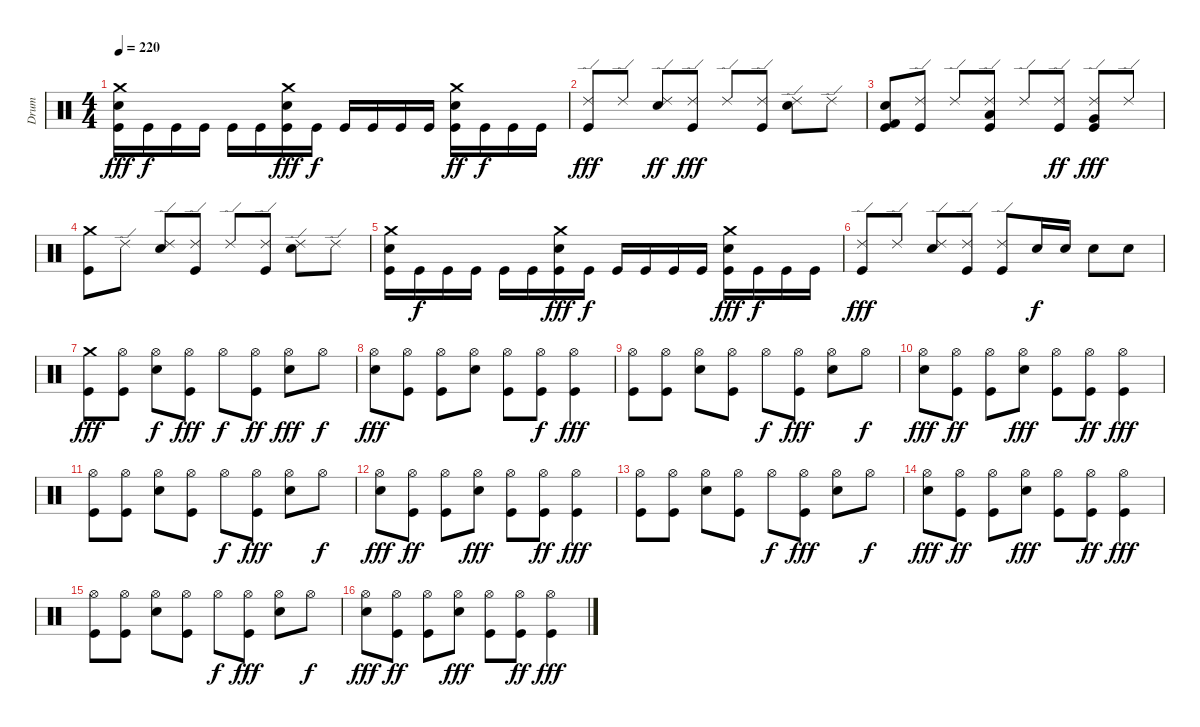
\track ("Drum" "Drum") {instrument percussion}
\staff {score}
\articulation defaults
\ts (4 4)
\tempo 220
\clef neutral
\ks c
("Crash medium (hit)" "Snare (hit) 2" "Kick (hit)").16{dy fff} "Kick (hit)".16{dy f} "Kick (hit)".16 "Kick (hit)".16 "Kick (hit)".16 "Kick (hit)".16 ("Crash medium (hit)" "Snare (hit) 2" "Kick (hit)").16{dy fff} "Kick (hit)".16{dy f} "Kick (hit)".16 "Kick (hit)".16 "Kick (hit)".16 "Kick (hit)".16 ("Crash medium (hit)" "Snare (hit) 2" "Kick (hit)").16{dy ff} "Kick (hit)".16{dy f} "Kick (hit)".16 "Kick (hit)".16 |
("Ride (edge) 2" "Kick (hit)").8{dy fff} "Ride (edge) 2".8 ("Ride (edge) 2" "Snare (hit) 2").8{dy ff} ("Ride (edge) 2" "Kick (hit)").8{dy fff} "Ride (edge) 2".8 ("Ride (edge) 2" "Kick (hit)").8 ("Ride (edge) 2" "Snare (hit) 2").8 "Ride (edge) 2".8 |
("Kick (hit) 2" "Snare (hit) 2" "Kick (hit)").8 ("Ride (edge) 2" "Kick (hit)").8 "Ride (edge) 2".8 ("Ride (edge) 2" "Low Floor Tom (hit)" "Kick (hit)").8 "Ride (edge) 2".8 ("Ride (edge) 2" "Kick (hit)").8{dy ff} ("Ride (edge) 2" "Very Low Tom (hit)" "Kick (hit)").8{dy fff} "Ride (edge) 2".8 |
("Crash medium (hit)" "Kick (hit)").8 "Ride (edge) 2".8 ("Ride (edge) 2" "Snare (hit) 2").8 ("Ride (edge) 2" "Kick (hit)").8 "Ride (edge) 2".8 ("Ride (edge) 2" "Kick (hit)").8 ("Ride (edge) 2" "Snare (hit) 2").8 "Ride (edge) 2".8 |
("Crash medium (hit)" "Snare (hit) 2" "Kick (hit)").16 "Kick (hit)".16{dy f} "Kick (hit)".16 "Kick (hit)".16 "Kick (hit)".16 "Kick (hit)".16 ("Crash medium (hit)" "Snare (hit) 2" "Kick (hit)").16{dy fff} "Kick (hit)".16{dy f} "Kick (hit)".16 "Kick (hit)".16 "Kick (hit)".16 "Kick (hit)".16 ("Crash medium (hit)" "Snare (hit) 2" "Kick (hit)").16{dy fff} "Kick (hit)".16{dy f} "Kick (hit)".16 "Kick (hit)".16 |
("Ride (edge) 2" "Kick (hit)").8{dy fff} "Ride (edge) 2".8 ("Ride (edge) 2" "Snare (hit) 2").8 ("Ride (edge) 2" "Kick (hit)").8 ("Ride (edge) 2" "Kick (hit)").8 "Snare (hit) 2".16{dy f} "Snare (hit) 2".16 "Snare (hit) 2".8 "Snare (hit) 2".8 |
("Crash medium (hit)" "Kick (hit)").8{dy fff} ("Hi-Hat (open)" "Kick (hit)").8 ("Hi-Hat (open)" "Snare (hit) 2").8{dy f} ("Hi-Hat (open)" "Kick (hit)").8{dy fff} "Hi-Hat (open)".8{dy f} ("Hi-Hat (open)" "Kick (hit)").8{dy ff} ("Hi-Hat (open)" "Snare (hit) 2").8{dy fff} "Hi-Hat (open)".8{dy f} |
("Hi-Hat (open)" "Snare (hit) 2").8{dy fff} ("Hi-Hat (open)" "Kick (hit)").8 ("Hi-Hat (open)" "Kick (hit)").8 ("Hi-Hat (open)" "Snare (hit) 2").8 ("Hi-Hat (open)" "Kick (hit)").8 ("Hi-Hat (open)" "Kick (hit)").8{dy f} ("Hi-Hat (open)" "Kick (hit)").4{dy fff} |
("Hi-Hat (open)" "Kick (hit)").8 ("Hi-Hat (open)" "Kick (hit)").8 ("Hi-Hat (open)" "Snare (hit) 2").8 ("Hi-Hat (open)" "Kick (hit)").8 "Hi-Hat (open)".8{dy f} ("Hi-Hat (open)" "Kick (hit)").8{dy fff} ("Hi-Hat (open)" "Snare (hit) 2").8 "Hi-Hat (open)".8{dy f} |
("Hi-Hat (open)" "Snare (hit) 2").8{dy fff} ("Hi-Hat (open)" "Kick (hit)").8{dy ff} ("Hi-Hat (open)" "Kick (hit)").8 ("Hi-Hat (open)" "Snare (hit) 2").8{dy fff} ("Hi-Hat (open)" "Kick (hit)").8 ("Hi-Hat (open)" "Kick (hit)").8{dy ff} ("Hi-Hat (open)" "Kick (hit)").4{dy fff} |
("Hi-Hat (open)" "Kick (hit)").8 ("Hi-Hat (open)" "Kick (hit)").8 ("Hi-Hat (open)" "Snare (hit) 2").8 ("Hi-Hat (open)" "Kick (hit)").8 "Hi-Hat (open)".8{dy f} ("Hi-Hat (open)" "Kick (hit)").8{dy fff} ("Hi-Hat (open)" "Snare (hit) 2").8 "Hi-Hat (open)".8{dy f} |
("Hi-Hat (open)" "Snare (hit) 2").8{dy fff} ("Hi-Hat (open)" "Kick (hit)").8{dy ff} ("Hi-Hat (open)" "Kick (hit)").8 ("Hi-Hat (open)" "Snare (hit) 2").8{dy fff} ("Hi-Hat (open)" "Kick (hit)").8 ("Hi-Hat (open)" "Kick (hit)").8{dy ff} ("Hi-Hat (open)" "Kick (hit)").4{dy fff} |
("Hi-Hat (open)" "Kick (hit)").8 ("Hi-Hat (open)" "Kick (hit)").8 ("Hi-Hat (open)" "Snare (hit) 2").8 ("Hi-Hat (open)" "Kick (hit)").8 "Hi-Hat (open)".8{dy f} ("Hi-Hat (open)" "Kick (hit)").8{dy fff} ("Hi-Hat (open)" "Snare (hit) 2").8 "Hi-Hat (open)".8{dy f} |
("Hi-Hat (open)" "Snare (hit) 2").8{dy fff} ("Hi-Hat (open)" "Kick (hit)").8{dy ff} ("Hi-Hat (open)" "Kick (hit)").8 ("Hi-Hat (open)" "Snare (hit) 2").8{dy fff} ("Hi-Hat (open)" "Kick (hit)").8 ("Hi-Hat (open)" "Kick (hit)").8{dy ff} ("Hi-Hat (open)" "Kick (hit)").4{dy fff} |
("Hi-Hat (open)" "Kick (hit)").8 ("Hi-Hat (open)" "Kick (hit)").8 ("Hi-Hat (open)" "Snare (hit) 2").8 ("Hi-Hat (open)" "Kick (hit)").8 "Hi-Hat (open)".8{dy f} ("Hi-Hat (open)" "Kick (hit)").8{dy fff} ("Hi-Hat (open)" "Snare (hit) 2").8 "Hi-Hat (open)".8{dy f} |
("Hi-Hat (open)" "Snare (hit) 2").8{dy fff} ("Hi-Hat (open)" "Kick (hit)").8{dy ff} ("Hi-Hat (open)" "Kick (hit)").8 ("Hi-Hat (open)" "Snare (hit) 2").8{dy fff} ("Hi-Hat (open)" "Kick (hit)").8 ("Hi-Hat (open)" "Kick (hit)").8{dy ff} ("Hi-Hat (open)" "Kick (hit)").4{dy fff}
